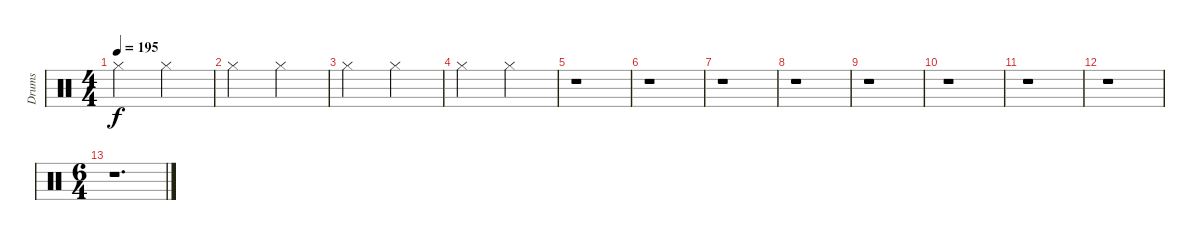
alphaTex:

\track ("Drums" "Drums") {instrument percussion}
\staff {score}
\articulation defaults
\ts (4 4)
\tempo 195
\clef neutral
\ks c "Hi-Hat (closed)".2{dy f} "Hi-Hat (closed)".2
|
"Hi-Hat (closed)".2 "Hi-Hat (closed)".2 |
"Hi-Hat (closed)".2 "Hi-Hat (closed)".2 |
"Hi-Hat (closed)".2 "Hi-Hat (closed)".2 |
r.1 |
r.1 |
r.1 |
r.1 |
r.1 |
r.1 |
r.1 |
r.1 |
\ts (6 4)
r.1{d}
